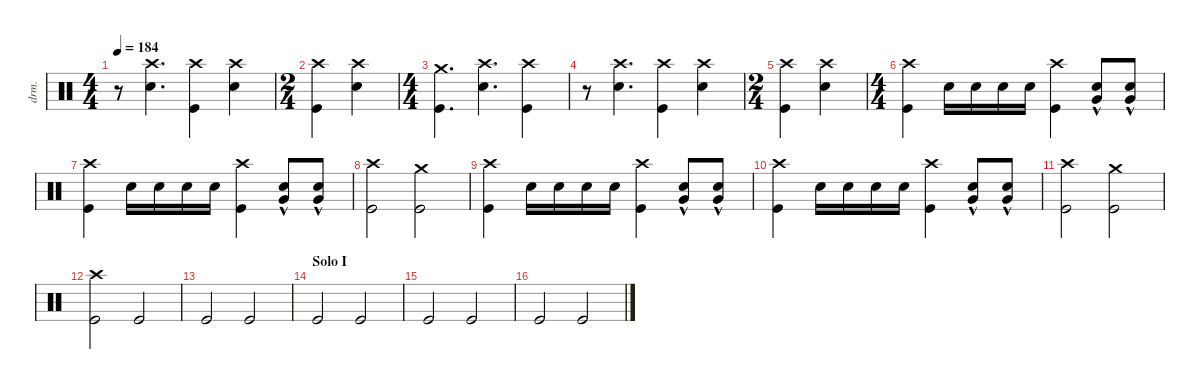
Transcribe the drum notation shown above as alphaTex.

\defaultSystemsLayout 4
\hideDynamics
\bracketExtendMode nobrackets
\otherSystemsTrackNameOrientation horizontal
\track ("Drums" "drm.") {defaultSystemsLayout 4 multiBarRest instrument percussion}
\staff {score}
\articulation defaults
\ts (4 4)
\tempo 184
\clef neutral
\ks c
r.8{dy f} ("Snare (hit) 2" "Crash high (hit)").4{d} ("Crash high (hit)" "Kick (hit)").4 ("Snare (hit) 2" "Crash high (hit)").4 |
\ts (2 4)
\beaming (8 2 2 2 2)
("Crash high (hit)" "Kick (hit)").4 ("Snare (hit) 2" "Crash high (hit)").4 |
\ts (4 4)
\beaming (8 2 2 2 2)
("Crash medium (hit)" "Kick (hit)").4{d} ("Snare (hit) 2" "Crash high (hit)").4{d} ("Crash high (hit)" "Kick (hit)").4 |
r.8 ("Snare (hit) 2" "Crash high (hit)").4{d} ("Crash high (hit)" "Kick (hit)").4 ("Snare (hit) 2" "Crash high (hit)").4 |
\ts (2 4)
\beaming (8 2 2 2 2)
("Crash high (hit)" "Kick (hit)").4 ("Snare (hit) 2" "Crash high (hit)").4 |
\ts (4 4)
\beaming (8 2 2 2 2)
("Crash high (hit)" "Kick (hit)").4 "Snare (hit) 2".16{dy mf} "Snare (hit) 2".16{dy mp} "Snare (hit) 2".16{dy mf} "Snare (hit) 2".16{dy mp} ("Crash high (hit)" "Kick (hit)").4{dy f} ("Snare (hit) 2" "Very Low Tom (hit)"{hac}).8 ("Snare (hit) 2" "Very Low Tom (hit)"{hac}).8 |
("Crash high (hit)" "Kick (hit)").4 "Snare (hit) 2".16{dy mf} "Snare (hit) 2".16{dy mp} "Snare (hit) 2".16{dy mf} "Snare (hit) 2".16{dy mp} ("Crash high (hit)" "Kick (hit)").4{dy f} ("Snare (hit) 2" "Very Low Tom (hit)"{hac}).8 ("Snare (hit) 2" "Very Low Tom (hit)"{hac}).8 |
("Crash high (hit)" "Kick (hit)").2 ("Crash medium (hit)" "Kick (hit)").2 |
("Crash high (hit)" "Kick (hit)").4 "Snare (hit) 2".16{dy mf} "Snare (hit) 2".16{dy mp} "Snare (hit) 2".16{dy mf} "Snare (hit) 2".16{dy mp} ("Crash high (hit)" "Kick (hit)").4{dy f} ("Snare (hit) 2" "Very Low Tom (hit)"{hac}).8 ("Snare (hit) 2" "Very Low Tom (hit)"{hac}).8 |
("Crash high (hit)" "Kick (hit)").4 "Snare (hit) 2".16{dy mf} "Snare (hit) 2".16{dy mp} "Snare (hit) 2".16{dy mf} "Snare (hit) 2".16{dy mp} ("Crash high (hit)" "Kick (hit)").4{dy f} ("Snare (hit) 2" "Very Low Tom (hit)"{hac}).8 ("Snare (hit) 2" "Very Low Tom (hit)"{hac}).8 |
("Crash high (hit)" "Kick (hit)").2 ("Crash medium (hit)" "Kick (hit)").2 |
("Crash high (hit)" "Kick (hit)").2 "Kick (hit)".2 |
"Kick (hit)".2 "Kick (hit)".2 |
\section ("" "Solo I")
"Kick (hit)".2 "Kick (hit)".2 |
"Kick (hit)".2 "Kick (hit)".2 |
"Kick (hit)".2 "Kick (hit)".2
